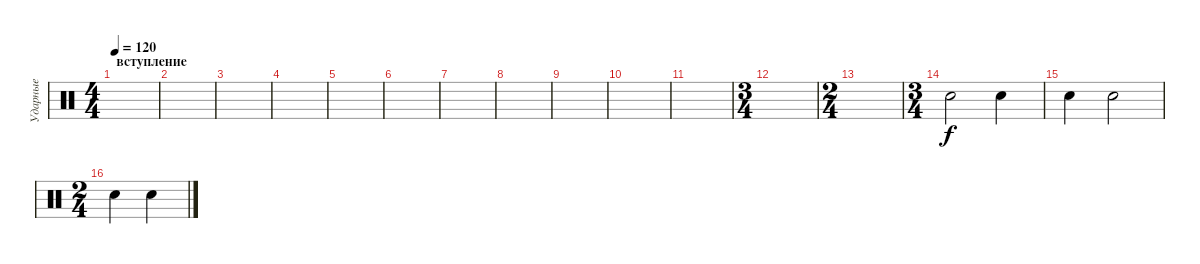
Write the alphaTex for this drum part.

\track ("Ударные" "Ударные") {instrument percussion}
\staff {score}
\articulation defaults
\ts (4 4)
\section ("" "вступление")
\tempo 120
\clef neutral
\ks c
|
|
|
|
|
|
|
|
|
|
|
\ts (3 4)
|
\ts (2 4)
|
\ts (3 4)
"Electric Snare (hit)".2 "Electric Snare (hit)".4 |
"Electric Snare (hit)".4 "Electric Snare (hit)".2 |
\ts (2 4)
"Electric Snare (hit)".4 "Electric Snare (hit)".4
